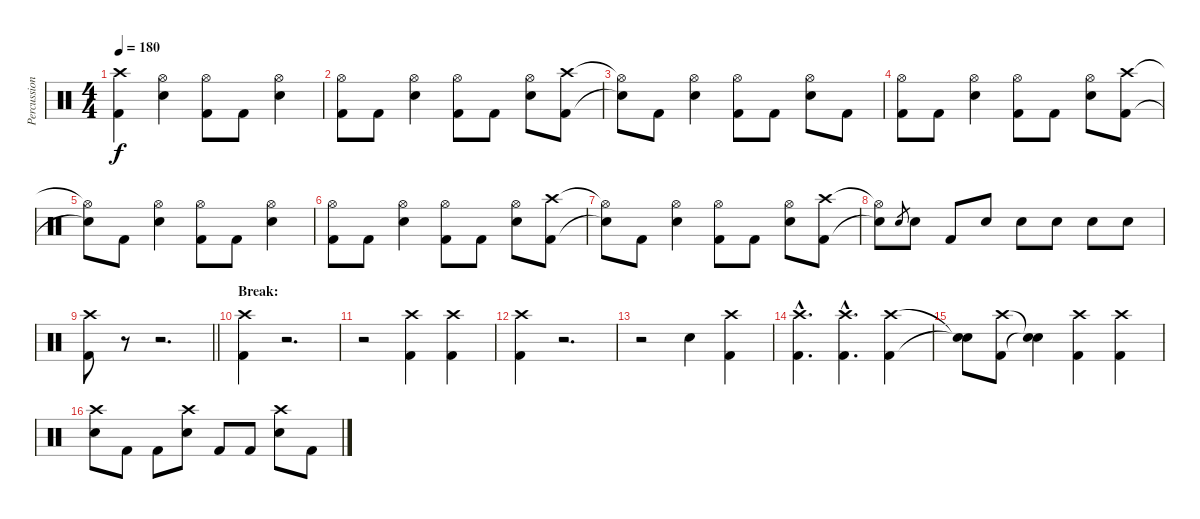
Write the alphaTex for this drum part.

\track ("Percussion" "Percussion") {instrument percussion}
\staff {score}
\articulation defaults
\ts (4 4)
\tempo 180
\clef neutral
\ks c
("Crash high (hit)" "Kick (hit) 2").4{dy f} ("Hi-Hat (open)" "Electric Snare (hit)").4 ("Hi-Hat (open)" "Kick (hit) 2").8 "Kick (hit) 2".8 ("Hi-Hat (open)" "Electric Snare (hit)").4 |
("Hi-Hat (open)" "Kick (hit) 2").8 "Kick (hit) 2".8 ("Hi-Hat (open)" "Electric Snare (hit)").4 ("Hi-Hat (open)" "Kick (hit) 2").8 "Kick (hit) 2".8 ("Hi-Hat (open)" "Electric Snare (hit)").8 ("Crash high (hit)" "Kick (hit) 2").8 |
("Hi-Hat (open)"{t} "Snare (hit)"{t}).8 "Kick (hit) 2".8 ("Hi-Hat (open)" "Electric Snare (hit)").4 ("Hi-Hat (open)" "Kick (hit) 2").8 "Kick (hit) 2".8 ("Hi-Hat (open)" "Electric Snare (hit)").8 "Kick (hit) 2".8 |
("Hi-Hat (open)" "Kick (hit) 2").8 "Kick (hit) 2".8 ("Hi-Hat (open)" "Electric Snare (hit)").4 ("Hi-Hat (open)" "Kick (hit) 2").8 "Kick (hit) 2".8 ("Hi-Hat (open)" "Electric Snare (hit)").8 ("Crash high (hit)" "Kick (hit) 2").8 |
("Hi-Hat (open)"{t} "Snare (hit)"{t}).8 "Kick (hit) 2".8 ("Hi-Hat (open)" "Electric Snare (hit)").4 ("Hi-Hat (open)" "Kick (hit) 2").8 "Kick (hit) 2".8 ("Hi-Hat (open)" "Electric Snare (hit)").4 |
("Hi-Hat (open)" "Kick (hit) 2").8 "Kick (hit) 2".8 ("Hi-Hat (open)" "Electric Snare (hit)").4 ("Hi-Hat (open)" "Kick (hit) 2").8 "Kick (hit) 2".8 ("Hi-Hat (open)" "Electric Snare (hit)").8 ("Crash high (hit)" "Kick (hit) 2").8 |
("Hi-Hat (open)"{t} "Snare (hit)"{t}).8 "Kick (hit) 2".8 ("Hi-Hat (open)" "Electric Snare (hit)").4 ("Hi-Hat (open)" "Kick (hit) 2").8 "Kick (hit) 2".8 ("Hi-Hat (open)" "Electric Snare (hit)").8 ("Crash high (hit)" "Kick (hit) 2").8 |
("Hi-Hat (open)"{t} "Snare (hit)"{t}).8 "Electric Snare (hit)".8{gr} "Electric Snare (hit)".8 "Kick (hit) 2".8 "Electric Snare (hit)".8 "Electric Snare (hit)".8 "Electric Snare (hit)".8 "Electric Snare (hit)".8 "Electric Snare (hit)".8 |
\barLineRight lightlight
("Crash high (hit)" "Kick (hit) 2").8 r.8 r.2{d} |
\section ("" "Break:")
("Crash high (hit)" "Kick (hit) 2").4 r.2{d} |
r.2 ("Crash high (hit)" "Kick (hit) 2").4 ("Crash high (hit)" "Kick (hit) 2").4 |
("Crash high (hit)" "Kick (hit) 2").4 r.2{d} |
r.2 "Electric Snare (hit)".4 ("Crash high (hit)" "Kick (hit) 2").4 |
("Crash high (hit)"{hac} "Kick (hit) 2"{hac}).4{d} ("Crash high (hit)"{hac} "Kick (hit) 2"{hac}).4{d} ("Crash high (hit)" "Kick (hit) 2").4 |
("Snare (hit)"{t} "Snare (hit)"{t}).8 ("Crash high (hit)" "Kick (hit) 2").8 ("Snare (hit)"{t} "Snare (hit)"{t}).4 ("Crash high (hit)" "Kick (hit) 2").4 ("Crash high (hit)" "Kick (hit) 2").4 |
("Crash high (hit)" "Electric Snare (hit)").8 "Kick (hit) 2".8 "Kick (hit) 2".8 ("Crash high (hit)" "Electric Snare (hit)").8 "Kick (hit) 2".8 "Kick (hit) 2".8 ("Crash high (hit)" "Electric Snare (hit)").8 "Kick (hit) 2".8
